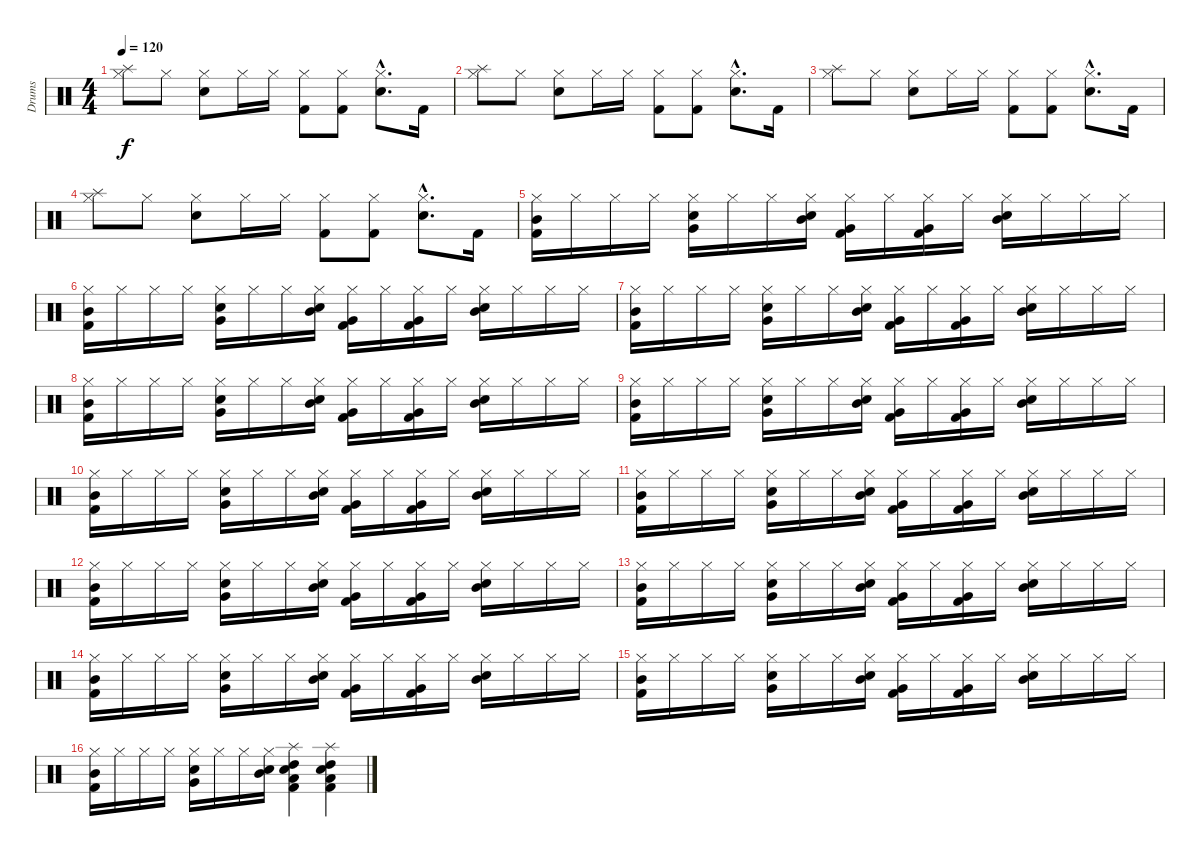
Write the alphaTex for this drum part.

\track ("Drums" "Drums") {instrument percussion}
\staff {score}
\articulation defaults
\ts (4 4)
\tempo 120
\clef neutral
\ks c
("Splash (hit)" "Hi-Hat (closed)").8{dy f} "Hi-Hat (closed)".8 ("Snare (hit) 2" "Hi-Hat (closed)").8 "Hi-Hat (closed)".16 "Hi-Hat (closed)".16 ("Kick (hit) 2" "Hi-Hat (closed)").8 ("Kick (hit) 2" "Hi-Hat (closed)").8 ("Snare (hit) 2"{hac} "Hi-Hat (closed)"{hac}).8{d} "Kick (hit) 2".16 |
("Splash (hit)" "Hi-Hat (closed)").8 "Hi-Hat (closed)".8 ("Snare (hit) 2" "Hi-Hat (closed)").8 "Hi-Hat (closed)".16 "Hi-Hat (closed)".16 ("Kick (hit) 2" "Hi-Hat (closed)").8 ("Kick (hit) 2" "Hi-Hat (closed)").8 ("Snare (hit) 2"{hac} "Hi-Hat (closed)"{hac}).8{d} "Kick (hit) 2".16 |
("Splash (hit)" "Hi-Hat (closed)").8 "Hi-Hat (closed)".8 ("Snare (hit) 2" "Hi-Hat (closed)").8 "Hi-Hat (closed)".16 "Hi-Hat (closed)".16 ("Kick (hit) 2" "Hi-Hat (closed)").8 ("Kick (hit) 2" "Hi-Hat (closed)").8 ("Snare (hit) 2"{hac} "Hi-Hat (closed)"{hac}).8{d} "Kick (hit) 2".16 |
("Splash (hit)" "Hi-Hat (closed)").8 "Hi-Hat (closed)".8 ("Snare (hit) 2" "Hi-Hat (closed)").8 "Hi-Hat (closed)".16 "Hi-Hat (closed)".16 ("Kick (hit) 2" "Hi-Hat (closed)").8 ("Kick (hit) 2" "Hi-Hat (closed)").8 ("Snare (hit) 2"{hac} "Hi-Hat (closed)"{hac}).8{d} "Kick (hit) 2".16 |
("Hi-Hat (closed)" "Kick (hit) 2" "Mid Tom (hit)").16 "Hi-Hat (closed)".16 "Hi-Hat (closed)".16 "Hi-Hat (closed)".16 ("Hi-Hat (closed)" "Snare (hit) 2" "Very Low Tom (hit)").16 "Hi-Hat (closed)".16 "Hi-Hat (closed)".16 ("Hi-Hat (closed)" "Snare (hit) 2" "Mid Tom (hit)").16 ("Hi-Hat (closed)" "Kick (hit) 2" "Very Low Tom (hit)").16 "Hi-Hat (closed)".16 ("Hi-Hat (closed)" "Kick (hit) 2" "Very Low Tom (hit)").16 "Hi-Hat (closed)".16 ("Hi-Hat (closed)" "Snare (hit) 2" "Mid Tom (hit)").16 "Hi-Hat (closed)".16 "Hi-Hat (closed)".16 "Hi-Hat (closed)".16 |
("Hi-Hat (closed)" "Kick (hit) 2" "Mid Tom (hit)").16 "Hi-Hat (closed)".16 "Hi-Hat (closed)".16 "Hi-Hat (closed)".16 ("Hi-Hat (closed)" "Snare (hit) 2" "Very Low Tom (hit)").16 "Hi-Hat (closed)".16 "Hi-Hat (closed)".16 ("Hi-Hat (closed)" "Snare (hit) 2" "Mid Tom (hit)").16 ("Hi-Hat (closed)" "Kick (hit) 2" "Very Low Tom (hit)").16 "Hi-Hat (closed)".16 ("Hi-Hat (closed)" "Kick (hit) 2" "Very Low Tom (hit)").16 "Hi-Hat (closed)".16 ("Hi-Hat (closed)" "Snare (hit) 2" "Mid Tom (hit)").16 "Hi-Hat (closed)".16 "Hi-Hat (closed)".16 "Hi-Hat (closed)".16 |
("Hi-Hat (closed)" "Kick (hit) 2" "Mid Tom (hit)").16 "Hi-Hat (closed)".16 "Hi-Hat (closed)".16 "Hi-Hat (closed)".16 ("Hi-Hat (closed)" "Snare (hit) 2" "Very Low Tom (hit)").16 "Hi-Hat (closed)".16 "Hi-Hat (closed)".16 ("Hi-Hat (closed)" "Snare (hit) 2" "Mid Tom (hit)").16 ("Hi-Hat (closed)" "Kick (hit) 2" "Very Low Tom (hit)").16 "Hi-Hat (closed)".16 ("Hi-Hat (closed)" "Kick (hit) 2" "Very Low Tom (hit)").16 "Hi-Hat (closed)".16 ("Hi-Hat (closed)" "Snare (hit) 2" "Mid Tom (hit)").16 "Hi-Hat (closed)".16 "Hi-Hat (closed)".16 "Hi-Hat (closed)".16 |
("Hi-Hat (closed)" "Kick (hit) 2" "Mid Tom (hit)").16 "Hi-Hat (closed)".16 "Hi-Hat (closed)".16 "Hi-Hat (closed)".16 ("Hi-Hat (closed)" "Snare (hit) 2" "Very Low Tom (hit)").16 "Hi-Hat (closed)".16 "Hi-Hat (closed)".16 ("Hi-Hat (closed)" "Snare (hit) 2" "Mid Tom (hit)").16 ("Hi-Hat (closed)" "Kick (hit) 2" "Very Low Tom (hit)").16 "Hi-Hat (closed)".16 ("Hi-Hat (closed)" "Kick (hit) 2" "Very Low Tom (hit)").16 "Hi-Hat (closed)".16 ("Hi-Hat (closed)" "Snare (hit) 2" "Mid Tom (hit)").16 "Hi-Hat (closed)".16 "Hi-Hat (closed)".16 "Hi-Hat (closed)".16 |
("Hi-Hat (closed)" "Kick (hit) 2" "Mid Tom (hit)").16 "Hi-Hat (closed)".16 "Hi-Hat (closed)".16 "Hi-Hat (closed)".16 ("Hi-Hat (closed)" "Snare (hit) 2" "Very Low Tom (hit)").16 "Hi-Hat (closed)".16 "Hi-Hat (closed)".16 ("Hi-Hat (closed)" "Snare (hit) 2" "Mid Tom (hit)").16 ("Hi-Hat (closed)" "Kick (hit) 2" "Very Low Tom (hit)").16 "Hi-Hat (closed)".16 ("Hi-Hat (closed)" "Kick (hit) 2" "Very Low Tom (hit)").16 "Hi-Hat (closed)".16 ("Hi-Hat (closed)" "Snare (hit) 2" "Mid Tom (hit)").16 "Hi-Hat (closed)".16 "Hi-Hat (closed)".16 "Hi-Hat (closed)".16 |
("Hi-Hat (closed)" "Kick (hit) 2" "Mid Tom (hit)").16 "Hi-Hat (closed)".16 "Hi-Hat (closed)".16 "Hi-Hat (closed)".16 ("Hi-Hat (closed)" "Snare (hit) 2" "Very Low Tom (hit)").16 "Hi-Hat (closed)".16 "Hi-Hat (closed)".16 ("Hi-Hat (closed)" "Snare (hit) 2" "Mid Tom (hit)").16 ("Hi-Hat (closed)" "Kick (hit) 2" "Very Low Tom (hit)").16 "Hi-Hat (closed)".16 ("Hi-Hat (closed)" "Kick (hit) 2" "Very Low Tom (hit)").16 "Hi-Hat (closed)".16 ("Hi-Hat (closed)" "Snare (hit) 2" "Mid Tom (hit)").16 "Hi-Hat (closed)".16 "Hi-Hat (closed)".16 "Hi-Hat (closed)".16 |
("Hi-Hat (closed)" "Kick (hit) 2" "Mid Tom (hit)").16 "Hi-Hat (closed)".16 "Hi-Hat (closed)".16 "Hi-Hat (closed)".16 ("Hi-Hat (closed)" "Snare (hit) 2" "Very Low Tom (hit)").16 "Hi-Hat (closed)".16 "Hi-Hat (closed)".16 ("Hi-Hat (closed)" "Snare (hit) 2" "Mid Tom (hit)").16 ("Hi-Hat (closed)" "Kick (hit) 2" "Very Low Tom (hit)").16 "Hi-Hat (closed)".16 ("Hi-Hat (closed)" "Kick (hit) 2" "Very Low Tom (hit)").16 "Hi-Hat (closed)".16 ("Hi-Hat (closed)" "Snare (hit) 2" "Mid Tom (hit)").16 "Hi-Hat (closed)".16 "Hi-Hat (closed)".16 "Hi-Hat (closed)".16 |
("Hi-Hat (closed)" "Kick (hit) 2" "Mid Tom (hit)").16 "Hi-Hat (closed)".16 "Hi-Hat (closed)".16 "Hi-Hat (closed)".16 ("Hi-Hat (closed)" "Snare (hit) 2" "Very Low Tom (hit)").16 "Hi-Hat (closed)".16 "Hi-Hat (closed)".16 ("Hi-Hat (closed)" "Snare (hit) 2" "Mid Tom (hit)").16 ("Hi-Hat (closed)" "Kick (hit) 2" "Very Low Tom (hit)").16 "Hi-Hat (closed)".16 ("Hi-Hat (closed)" "Kick (hit) 2" "Very Low Tom (hit)").16 "Hi-Hat (closed)".16 ("Hi-Hat (closed)" "Snare (hit) 2" "Mid Tom (hit)").16 "Hi-Hat (closed)".16 "Hi-Hat (closed)".16 "Hi-Hat (closed)".16 |
("Hi-Hat (closed)" "Kick (hit) 2" "Mid Tom (hit)").16 "Hi-Hat (closed)".16 "Hi-Hat (closed)".16 "Hi-Hat (closed)".16 ("Hi-Hat (closed)" "Snare (hit) 2" "Very Low Tom (hit)").16 "Hi-Hat (closed)".16 "Hi-Hat (closed)".16 ("Hi-Hat (closed)" "Snare (hit) 2" "Mid Tom (hit)").16 ("Hi-Hat (closed)" "Kick (hit) 2" "Very Low Tom (hit)").16 "Hi-Hat (closed)".16 ("Hi-Hat (closed)" "Kick (hit) 2" "Very Low Tom (hit)").16 "Hi-Hat (closed)".16 ("Hi-Hat (closed)" "Snare (hit) 2" "Mid Tom (hit)").16 "Hi-Hat (closed)".16 "Hi-Hat (closed)".16 "Hi-Hat (closed)".16 |
("Hi-Hat (closed)" "Kick (hit) 2" "Mid Tom (hit)").16 "Hi-Hat (closed)".16 "Hi-Hat (closed)".16 "Hi-Hat (closed)".16 ("Hi-Hat (closed)" "Snare (hit) 2" "Very Low Tom (hit)").16 "Hi-Hat (closed)".16 "Hi-Hat (closed)".16 ("Hi-Hat (closed)" "Snare (hit) 2" "Mid Tom (hit)").16 ("Hi-Hat (closed)" "Kick (hit) 2" "Very Low Tom (hit)").16 "Hi-Hat (closed)".16 ("Hi-Hat (closed)" "Kick (hit) 2" "Very Low Tom (hit)").16 "Hi-Hat (closed)".16 ("Hi-Hat (closed)" "Snare (hit) 2" "Mid Tom (hit)").16 "Hi-Hat (closed)".16 "Hi-Hat (closed)".16 "Hi-Hat (closed)".16 |
("Hi-Hat (closed)" "Kick (hit) 2" "Mid Tom (hit)").16 "Hi-Hat (closed)".16 "Hi-Hat (closed)".16 "Hi-Hat (closed)".16 ("Hi-Hat (closed)" "Snare (hit) 2" "Very Low Tom (hit)").16 "Hi-Hat (closed)".16 "Hi-Hat (closed)".16 ("Hi-Hat (closed)" "Snare (hit) 2" "Mid Tom (hit)").16 ("Hi-Hat (closed)" "Kick (hit) 2" "Very Low Tom (hit)").16 "Hi-Hat (closed)".16 ("Hi-Hat (closed)" "Kick (hit) 2" "Very Low Tom (hit)").16 "Hi-Hat (closed)".16 ("Hi-Hat (closed)" "Snare (hit) 2" "Mid Tom (hit)").16 "Hi-Hat (closed)".16 "Hi-Hat (closed)".16 "Hi-Hat (closed)".16 |
("Hi-Hat (closed)" "Kick (hit) 2" "Mid Tom (hit)").16 "Hi-Hat (closed)".16 "Hi-Hat (closed)".16 "Hi-Hat (closed)".16 ("Hi-Hat (closed)" "Snare (hit) 2" "Very Low Tom (hit)").16 "Hi-Hat (closed)".16 "Hi-Hat (closed)".16 ("Hi-Hat (closed)" "Snare (hit) 2" "Mid Tom (hit)").16 ("Snare (hit) 2" "High Tom (hit)" "Low Tom (hit)" "Splash (hit)" "Kick (hit) 2").4 ("Snare (hit) 2" "High Tom (hit)" "Low Tom (hit)" "Splash (hit)" "Kick (hit) 2").4
